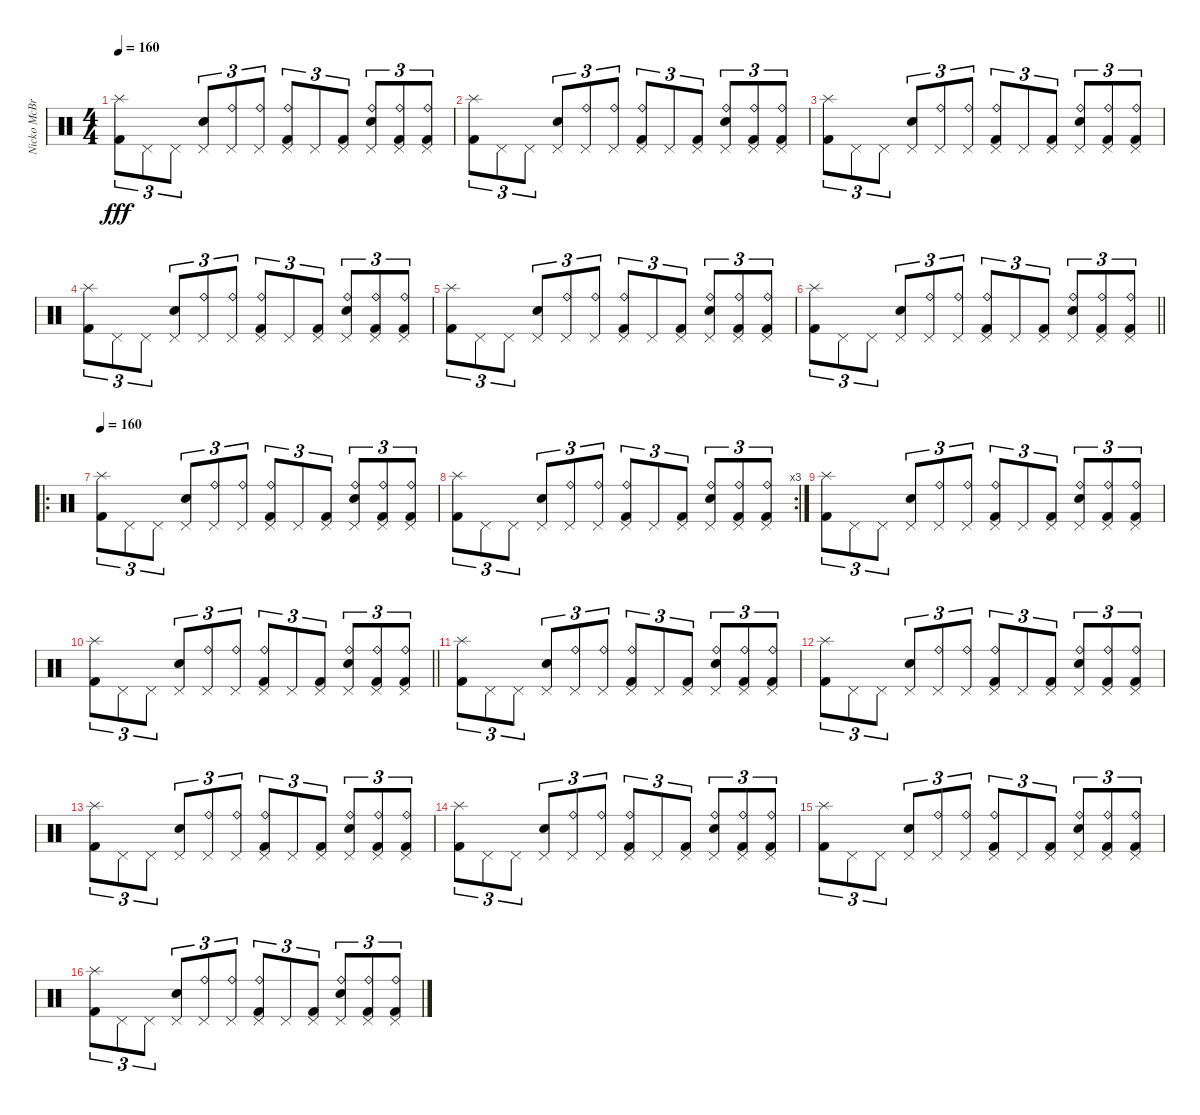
\track ("Nicko McBrian (Drums)" "Nicko McBr") {instrument percussion}
\staff {score}
\articulation defaults
\ts (4 4)
\tempo 160
\clef neutral
\ks c
("Splash (hit)" "Kick (hit) 2").8{tu (3 2) dy fff} "Pedal Hi-Hat (hit)".8{tu (3 2)} "Pedal Hi-Hat (hit)".8{tu (3 2)} ("Pedal Hi-Hat (hit)" "Snare (hit) 2").8{tu (3 2)} ("Pedal Hi-Hat (hit)" "Ride (bell)").8{tu (3 2)} ("Pedal Hi-Hat (hit)" "Ride (bell)").8{tu (3 2)} ("Pedal Hi-Hat (hit)" "Kick (hit) 2" "Ride (bell)").8{tu (3 2)} "Pedal Hi-Hat (hit)".8{tu (3 2)} ("Pedal Hi-Hat (hit)" "Kick (hit) 2").8{tu (3 2)} ("Pedal Hi-Hat (hit)" "Snare (hit) 2" "Ride (bell)").8{tu (3 2)} ("Pedal Hi-Hat (hit)" "Kick (hit) 2" "Ride (bell)").8{tu (3 2)} ("Pedal Hi-Hat (hit)" "Kick (hit) 2" "Ride (bell)").8{tu (3 2)} |
("Splash (hit)" "Kick (hit) 2").8{tu (3 2)} "Pedal Hi-Hat (hit)".8{tu (3 2)} "Pedal Hi-Hat (hit)".8{tu (3 2)} ("Pedal Hi-Hat (hit)" "Snare (hit) 2").8{tu (3 2)} ("Pedal Hi-Hat (hit)" "Ride (bell)").8{tu (3 2)} ("Pedal Hi-Hat (hit)" "Ride (bell)").8{tu (3 2)} ("Pedal Hi-Hat (hit)" "Kick (hit) 2" "Ride (bell)").8{tu (3 2)} "Pedal Hi-Hat (hit)".8{tu (3 2)} ("Pedal Hi-Hat (hit)" "Kick (hit) 2").8{tu (3 2)} ("Pedal Hi-Hat (hit)" "Snare (hit) 2" "Ride (bell)").8{tu (3 2)} ("Pedal Hi-Hat (hit)" "Kick (hit) 2" "Ride (bell)").8{tu (3 2)} ("Pedal Hi-Hat (hit)" "Kick (hit) 2" "Ride (bell)").8{tu (3 2)} |
("Splash (hit)" "Kick (hit) 2").8{tu (3 2)} "Pedal Hi-Hat (hit)".8{tu (3 2)} "Pedal Hi-Hat (hit)".8{tu (3 2)} ("Pedal Hi-Hat (hit)" "Snare (hit) 2").8{tu (3 2)} ("Pedal Hi-Hat (hit)" "Ride (bell)").8{tu (3 2)} ("Pedal Hi-Hat (hit)" "Ride (bell)").8{tu (3 2)} ("Pedal Hi-Hat (hit)" "Kick (hit) 2" "Ride (bell)").8{tu (3 2)} "Pedal Hi-Hat (hit)".8{tu (3 2)} ("Pedal Hi-Hat (hit)" "Kick (hit) 2").8{tu (3 2)} ("Pedal Hi-Hat (hit)" "Snare (hit) 2" "Ride (bell)").8{tu (3 2)} ("Pedal Hi-Hat (hit)" "Kick (hit) 2" "Ride (bell)").8{tu (3 2)} ("Pedal Hi-Hat (hit)" "Kick (hit) 2" "Ride (bell)").8{tu (3 2)} |
("Splash (hit)" "Kick (hit) 2").8{tu (3 2)} "Pedal Hi-Hat (hit)".8{tu (3 2)} "Pedal Hi-Hat (hit)".8{tu (3 2)} ("Pedal Hi-Hat (hit)" "Snare (hit) 2").8{tu (3 2)} ("Pedal Hi-Hat (hit)" "Ride (bell)").8{tu (3 2)} ("Pedal Hi-Hat (hit)" "Ride (bell)").8{tu (3 2)} ("Pedal Hi-Hat (hit)" "Kick (hit) 2" "Ride (bell)").8{tu (3 2)} "Pedal Hi-Hat (hit)".8{tu (3 2)} ("Pedal Hi-Hat (hit)" "Kick (hit) 2").8{tu (3 2)} ("Pedal Hi-Hat (hit)" "Snare (hit) 2" "Ride (bell)").8{tu (3 2)} ("Pedal Hi-Hat (hit)" "Kick (hit) 2" "Ride (bell)").8{tu (3 2)} ("Pedal Hi-Hat (hit)" "Kick (hit) 2" "Ride (bell)").8{tu (3 2)} |
("Splash (hit)" "Kick (hit) 2").8{tu (3 2)} "Pedal Hi-Hat (hit)".8{tu (3 2)} "Pedal Hi-Hat (hit)".8{tu (3 2)} ("Pedal Hi-Hat (hit)" "Snare (hit) 2").8{tu (3 2)} ("Pedal Hi-Hat (hit)" "Ride (bell)").8{tu (3 2)} ("Pedal Hi-Hat (hit)" "Ride (bell)").8{tu (3 2)} ("Pedal Hi-Hat (hit)" "Kick (hit) 2" "Ride (bell)").8{tu (3 2)} "Pedal Hi-Hat (hit)".8{tu (3 2)} ("Pedal Hi-Hat (hit)" "Kick (hit) 2").8{tu (3 2)} ("Pedal Hi-Hat (hit)" "Snare (hit) 2" "Ride (bell)").8{tu (3 2)} ("Pedal Hi-Hat (hit)" "Kick (hit) 2" "Ride (bell)").8{tu (3 2)} ("Pedal Hi-Hat (hit)" "Kick (hit) 2" "Ride (bell)").8{tu (3 2)} |
\barLineRight lightlight
("Splash (hit)" "Kick (hit) 2").8{tu (3 2)} "Pedal Hi-Hat (hit)".8{tu (3 2)} "Pedal Hi-Hat (hit)".8{tu (3 2)} ("Pedal Hi-Hat (hit)" "Snare (hit) 2").8{tu (3 2)} ("Pedal Hi-Hat (hit)" "Ride (bell)").8{tu (3 2)} ("Pedal Hi-Hat (hit)" "Ride (bell)").8{tu (3 2)} ("Pedal Hi-Hat (hit)" "Kick (hit) 2" "Ride (bell)").8{tu (3 2)} "Pedal Hi-Hat (hit)".8{tu (3 2)} ("Pedal Hi-Hat (hit)" "Kick (hit) 2").8{tu (3 2)} ("Pedal Hi-Hat (hit)" "Snare (hit) 2" "Ride (bell)").8{tu (3 2)} ("Pedal Hi-Hat (hit)" "Kick (hit) 2" "Ride (bell)").8{tu (3 2)} ("Pedal Hi-Hat (hit)" "Kick (hit) 2" "Ride (bell)").8{tu (3 2)} |
\ro
\tempo 160
("Splash (hit)" "Kick (hit) 2").8{tu (3 2)} "Pedal Hi-Hat (hit)".8{tu (3 2)} "Pedal Hi-Hat (hit)".8{tu (3 2)} ("Pedal Hi-Hat (hit)" "Snare (hit) 2").8{tu (3 2)} ("Pedal Hi-Hat (hit)" "Ride (bell)").8{tu (3 2)} ("Pedal Hi-Hat (hit)" "Ride (bell)").8{tu (3 2)} ("Pedal Hi-Hat (hit)" "Kick (hit) 2" "Ride (bell)").8{tu (3 2)} "Pedal Hi-Hat (hit)".8{tu (3 2)} ("Pedal Hi-Hat (hit)" "Kick (hit) 2").8{tu (3 2)} ("Pedal Hi-Hat (hit)" "Snare (hit) 2" "Ride (bell)").8{tu (3 2)} ("Pedal Hi-Hat (hit)" "Kick (hit) 2" "Ride (bell)").8{tu (3 2)} ("Pedal Hi-Hat (hit)" "Kick (hit) 2" "Ride (bell)").8{tu (3 2)} |
\rc 3
("Splash (hit)" "Kick (hit) 2").8{tu (3 2)} "Pedal Hi-Hat (hit)".8{tu (3 2)} "Pedal Hi-Hat (hit)".8{tu (3 2)} ("Pedal Hi-Hat (hit)" "Snare (hit) 2").8{tu (3 2)} ("Pedal Hi-Hat (hit)" "Ride (bell)").8{tu (3 2)} ("Pedal Hi-Hat (hit)" "Ride (bell)").8{tu (3 2)} ("Pedal Hi-Hat (hit)" "Kick (hit) 2" "Ride (bell)").8{tu (3 2)} "Pedal Hi-Hat (hit)".8{tu (3 2)} ("Pedal Hi-Hat (hit)" "Kick (hit) 2").8{tu (3 2)} ("Pedal Hi-Hat (hit)" "Snare (hit) 2" "Ride (bell)").8{tu (3 2)} ("Pedal Hi-Hat (hit)" "Kick (hit) 2" "Ride (bell)").8{tu (3 2)} ("Pedal Hi-Hat (hit)" "Kick (hit) 2" "Ride (bell)").8{tu (3 2)} |
("Splash (hit)" "Kick (hit) 2").8{tu (3 2)} "Pedal Hi-Hat (hit)".8{tu (3 2)} "Pedal Hi-Hat (hit)".8{tu (3 2)} ("Pedal Hi-Hat (hit)" "Snare (hit) 2").8{tu (3 2)} ("Pedal Hi-Hat (hit)" "Ride (bell)").8{tu (3 2)} ("Pedal Hi-Hat (hit)" "Ride (bell)").8{tu (3 2)} ("Pedal Hi-Hat (hit)" "Kick (hit) 2" "Ride (bell)").8{tu (3 2)} "Pedal Hi-Hat (hit)".8{tu (3 2)} ("Pedal Hi-Hat (hit)" "Kick (hit) 2").8{tu (3 2)} ("Pedal Hi-Hat (hit)" "Snare (hit) 2" "Ride (bell)").8{tu (3 2)} ("Pedal Hi-Hat (hit)" "Kick (hit) 2" "Ride (bell)").8{tu (3 2)} ("Pedal Hi-Hat (hit)" "Kick (hit) 2" "Ride (bell)").8{tu (3 2)} |
\barLineRight lightlight
("Splash (hit)" "Kick (hit) 2").8{tu (3 2)} "Pedal Hi-Hat (hit)".8{tu (3 2)} "Pedal Hi-Hat (hit)".8{tu (3 2)} ("Pedal Hi-Hat (hit)" "Snare (hit) 2").8{tu (3 2)} ("Pedal Hi-Hat (hit)" "Ride (bell)").8{tu (3 2)} ("Pedal Hi-Hat (hit)" "Ride (bell)").8{tu (3 2)} ("Pedal Hi-Hat (hit)" "Kick (hit) 2" "Ride (bell)").8{tu (3 2)} "Pedal Hi-Hat (hit)".8{tu (3 2)} ("Pedal Hi-Hat (hit)" "Kick (hit) 2").8{tu (3 2)} ("Pedal Hi-Hat (hit)" "Snare (hit) 2" "Ride (bell)").8{tu (3 2)} ("Pedal Hi-Hat (hit)" "Kick (hit) 2" "Ride (bell)").8{tu (3 2)} ("Pedal Hi-Hat (hit)" "Kick (hit) 2" "Ride (bell)").8{tu (3 2)} |
("Splash (hit)" "Kick (hit) 2").8{tu (3 2)} "Pedal Hi-Hat (hit)".8{tu (3 2)} "Pedal Hi-Hat (hit)".8{tu (3 2)} ("Pedal Hi-Hat (hit)" "Snare (hit) 2").8{tu (3 2)} ("Pedal Hi-Hat (hit)" "Ride (bell)").8{tu (3 2)} ("Pedal Hi-Hat (hit)" "Ride (bell)").8{tu (3 2)} ("Pedal Hi-Hat (hit)" "Kick (hit) 2" "Ride (bell)").8{tu (3 2)} "Pedal Hi-Hat (hit)".8{tu (3 2)} ("Pedal Hi-Hat (hit)" "Kick (hit) 2").8{tu (3 2)} ("Pedal Hi-Hat (hit)" "Snare (hit) 2" "Ride (bell)").8{tu (3 2)} ("Pedal Hi-Hat (hit)" "Kick (hit) 2" "Ride (bell)").8{tu (3 2)} ("Pedal Hi-Hat (hit)" "Kick (hit) 2" "Ride (bell)").8{tu (3 2)} |
("Splash (hit)" "Kick (hit) 2").8{tu (3 2)} "Pedal Hi-Hat (hit)".8{tu (3 2)} "Pedal Hi-Hat (hit)".8{tu (3 2)} ("Pedal Hi-Hat (hit)" "Snare (hit) 2").8{tu (3 2)} ("Pedal Hi-Hat (hit)" "Ride (bell)").8{tu (3 2)} ("Pedal Hi-Hat (hit)" "Ride (bell)").8{tu (3 2)} ("Pedal Hi-Hat (hit)" "Kick (hit) 2" "Ride (bell)").8{tu (3 2)} "Pedal Hi-Hat (hit)".8{tu (3 2)} ("Pedal Hi-Hat (hit)" "Kick (hit) 2").8{tu (3 2)} ("Pedal Hi-Hat (hit)" "Snare (hit) 2" "Ride (bell)").8{tu (3 2)} ("Pedal Hi-Hat (hit)" "Kick (hit) 2" "Ride (bell)").8{tu (3 2)} ("Pedal Hi-Hat (hit)" "Kick (hit) 2" "Ride (bell)").8{tu (3 2)} |
("Splash (hit)" "Kick (hit) 2").8{tu (3 2)} "Pedal Hi-Hat (hit)".8{tu (3 2)} "Pedal Hi-Hat (hit)".8{tu (3 2)} ("Pedal Hi-Hat (hit)" "Snare (hit) 2").8{tu (3 2)} ("Pedal Hi-Hat (hit)" "Ride (bell)").8{tu (3 2)} ("Pedal Hi-Hat (hit)" "Ride (bell)").8{tu (3 2)} ("Pedal Hi-Hat (hit)" "Kick (hit) 2" "Ride (bell)").8{tu (3 2)} "Pedal Hi-Hat (hit)".8{tu (3 2)} ("Pedal Hi-Hat (hit)" "Kick (hit) 2").8{tu (3 2)} ("Pedal Hi-Hat (hit)" "Snare (hit) 2" "Ride (bell)").8{tu (3 2)} ("Pedal Hi-Hat (hit)" "Kick (hit) 2" "Ride (bell)").8{tu (3 2)} ("Pedal Hi-Hat (hit)" "Kick (hit) 2" "Ride (bell)").8{tu (3 2)} |
("Splash (hit)" "Kick (hit) 2").8{tu (3 2)} "Pedal Hi-Hat (hit)".8{tu (3 2)} "Pedal Hi-Hat (hit)".8{tu (3 2)} ("Pedal Hi-Hat (hit)" "Snare (hit) 2").8{tu (3 2)} ("Pedal Hi-Hat (hit)" "Ride (bell)").8{tu (3 2)} ("Pedal Hi-Hat (hit)" "Ride (bell)").8{tu (3 2)} ("Pedal Hi-Hat (hit)" "Kick (hit) 2" "Ride (bell)").8{tu (3 2)} "Pedal Hi-Hat (hit)".8{tu (3 2)} ("Pedal Hi-Hat (hit)" "Kick (hit) 2").8{tu (3 2)} ("Pedal Hi-Hat (hit)" "Snare (hit) 2" "Ride (bell)").8{tu (3 2)} ("Pedal Hi-Hat (hit)" "Kick (hit) 2" "Ride (bell)").8{tu (3 2)} ("Pedal Hi-Hat (hit)" "Kick (hit) 2" "Ride (bell)").8{tu (3 2)} |
("Splash (hit)" "Kick (hit) 2").8{tu (3 2)} "Pedal Hi-Hat (hit)".8{tu (3 2)} "Pedal Hi-Hat (hit)".8{tu (3 2)} ("Pedal Hi-Hat (hit)" "Snare (hit) 2").8{tu (3 2)} ("Pedal Hi-Hat (hit)" "Ride (bell)").8{tu (3 2)} ("Pedal Hi-Hat (hit)" "Ride (bell)").8{tu (3 2)} ("Pedal Hi-Hat (hit)" "Kick (hit) 2" "Ride (bell)").8{tu (3 2)} "Pedal Hi-Hat (hit)".8{tu (3 2)} ("Pedal Hi-Hat (hit)" "Kick (hit) 2").8{tu (3 2)} ("Pedal Hi-Hat (hit)" "Snare (hit) 2" "Ride (bell)").8{tu (3 2)} ("Pedal Hi-Hat (hit)" "Kick (hit) 2" "Ride (bell)").8{tu (3 2)} ("Pedal Hi-Hat (hit)" "Kick (hit) 2" "Ride (bell)").8{tu (3 2)} |
("Splash (hit)" "Kick (hit) 2").8{tu (3 2)} "Pedal Hi-Hat (hit)".8{tu (3 2)} "Pedal Hi-Hat (hit)".8{tu (3 2)} ("Pedal Hi-Hat (hit)" "Snare (hit) 2").8{tu (3 2)} ("Pedal Hi-Hat (hit)" "Ride (bell)").8{tu (3 2)} ("Pedal Hi-Hat (hit)" "Ride (bell)").8{tu (3 2)} ("Pedal Hi-Hat (hit)" "Kick (hit) 2" "Ride (bell)").8{tu (3 2)} "Pedal Hi-Hat (hit)".8{tu (3 2)} ("Pedal Hi-Hat (hit)" "Kick (hit) 2").8{tu (3 2)} ("Pedal Hi-Hat (hit)" "Snare (hit) 2" "Ride (bell)").8{tu (3 2)} ("Pedal Hi-Hat (hit)" "Kick (hit) 2" "Ride (bell)").8{tu (3 2)} ("Pedal Hi-Hat (hit)" "Kick (hit) 2" "Ride (bell)").8{tu (3 2)}
